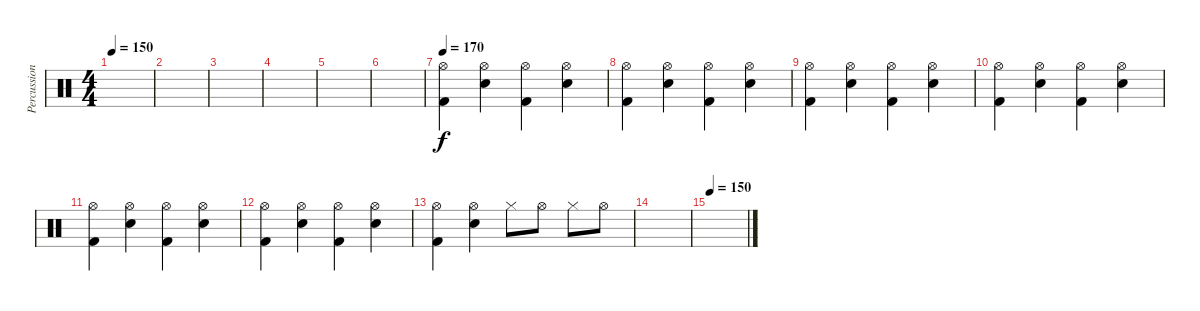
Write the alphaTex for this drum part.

\track ("Percussion" "Percussion") {instrument percussion}
\staff {score}
\articulation defaults
\ts (4 4)
\tempo 150
\clef neutral
\ks c
|
|
|
|
|
|
\tempo 170
("Hi-Hat (open)" "Kick (hit) 2").4 ("Hi-Hat (open)" "Electric Snare (hit)").4 ("Hi-Hat (open)" "Kick (hit) 2").4 ("Hi-Hat (open)" "Electric Snare (hit)").4 |
("Hi-Hat (open)" "Kick (hit) 2").4 ("Hi-Hat (open)" "Electric Snare (hit)").4 ("Hi-Hat (open)" "Kick (hit) 2").4 ("Hi-Hat (open)" "Electric Snare (hit)").4 |
("Hi-Hat (open)" "Kick (hit) 2").4 ("Hi-Hat (open)" "Electric Snare (hit)").4 ("Hi-Hat (open)" "Kick (hit) 2").4 ("Hi-Hat (open)" "Electric Snare (hit)").4 |
("Hi-Hat (open)" "Kick (hit) 2").4 ("Hi-Hat (open)" "Electric Snare (hit)").4 ("Hi-Hat (open)" "Kick (hit) 2").4 ("Hi-Hat (open)" "Electric Snare (hit)").4 |
("Hi-Hat (open)" "Kick (hit) 2").4 ("Hi-Hat (open)" "Electric Snare (hit)").4 ("Hi-Hat (open)" "Kick (hit) 2").4 ("Hi-Hat (open)" "Electric Snare (hit)").4 |
("Hi-Hat (open)" "Kick (hit) 2").4 ("Hi-Hat (open)" "Electric Snare (hit)").4 ("Hi-Hat (open)" "Kick (hit) 2").4 ("Hi-Hat (open)" "Electric Snare (hit)").4 |
("Hi-Hat (open)" "Kick (hit) 2").4 ("Hi-Hat (open)" "Electric Snare (hit)").4 "Hi-Hat (closed)".8 "Hi-Hat (open)".8 "Hi-Hat (closed)".8 "Hi-Hat (open)".8 |
|
\tempo 150
